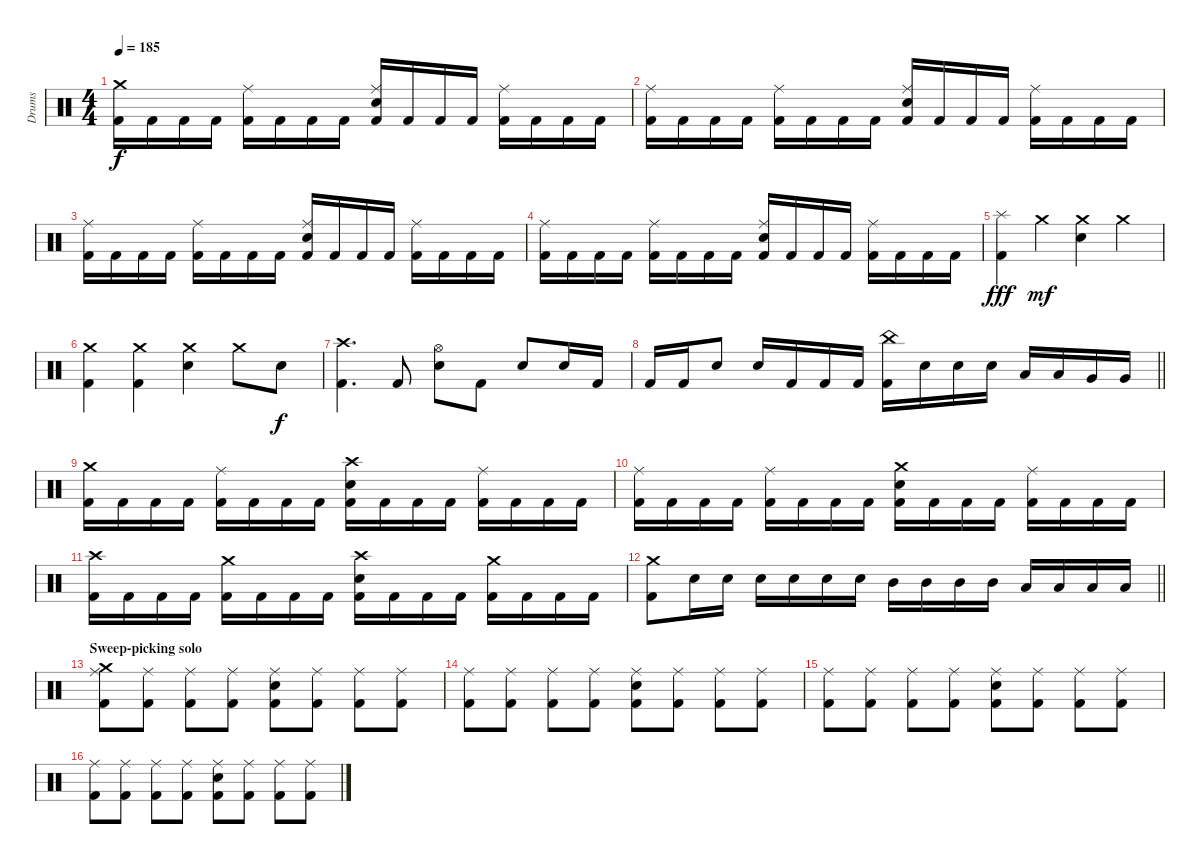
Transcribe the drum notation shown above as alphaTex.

\track ("Drums" "Drums") {instrument percussion}
\staff {score}
\articulation defaults
\ts (4 4)
\tempo 185
\clef neutral
\ks c
("Crash medium (hit)" "Kick (hit) 2").16{dy f} "Kick (hit) 2".16 "Kick (hit) 2".16 "Kick (hit) 2".16 ("Ride (middle)" "Kick (hit) 2").16 "Kick (hit) 2".16 "Kick (hit) 2".16 "Kick (hit) 2".16 ("Ride (middle)" "Electric Snare (hit)" "Kick (hit) 2").16 "Kick (hit) 2".16 "Kick (hit) 2".16 "Kick (hit) 2".16 ("Ride (middle)" "Kick (hit) 2").16 "Kick (hit) 2".16 "Kick (hit) 2".16 "Kick (hit) 2".16 |
("Ride (middle)" "Kick (hit) 2").16 "Kick (hit) 2".16 "Kick (hit) 2".16 "Kick (hit) 2".16 ("Ride (middle)" "Kick (hit) 2").16 "Kick (hit) 2".16 "Kick (hit) 2".16 "Kick (hit) 2".16 ("Ride (middle)" "Electric Snare (hit)" "Kick (hit) 2").16 "Kick (hit) 2".16 "Kick (hit) 2".16 "Kick (hit) 2".16 ("Ride (middle)" "Kick (hit) 2").16 "Kick (hit) 2".16 "Kick (hit) 2".16 "Kick (hit) 2".16 |
("Ride (middle)" "Kick (hit) 2").16 "Kick (hit) 2".16 "Kick (hit) 2".16 "Kick (hit) 2".16 ("Ride (middle)" "Kick (hit) 2").16 "Kick (hit) 2".16 "Kick (hit) 2".16 "Kick (hit) 2".16 ("Ride (middle)" "Electric Snare (hit)" "Kick (hit) 2").16 "Kick (hit) 2".16 "Kick (hit) 2".16 "Kick (hit) 2".16 ("Ride (middle)" "Kick (hit) 2").16 "Kick (hit) 2".16 "Kick (hit) 2".16 "Kick (hit) 2".16 |
("Ride (middle)" "Kick (hit) 2").16 "Kick (hit) 2".16 "Kick (hit) 2".16 "Kick (hit) 2".16 ("Ride (middle)" "Kick (hit) 2").16 "Kick (hit) 2".16 "Kick (hit) 2".16 "Kick (hit) 2".16 ("Ride (middle)" "Electric Snare (hit)" "Kick (hit) 2").16 "Kick (hit) 2".16 "Kick (hit) 2".16 "Kick (hit) 2".16 ("Ride (middle)" "Kick (hit) 2").16 "Kick (hit) 2".16 "Kick (hit) 2".16 "Kick (hit) 2".16 |
("Splash (hit)" "Kick (hit) 2").4{dy fff} "Crash medium (hit)".4{dy mf} ("Crash medium (hit)" "Electric Snare (hit)").4 "Crash medium (hit)".4 |
("Crash medium (hit)" "Kick (hit) 2").4 ("Crash medium (hit)" "Kick (hit) 2").4 ("Crash medium (hit)" "Electric Snare (hit)").4 "Crash medium (hit)".8 "Electric Snare (hit)".8{dy f} |
("Crash high (hit)" "Kick (hit) 2").4{d} "Kick (hit) 2".8 ("Hi-Hat (open)" "Electric Snare (hit)").8 "Kick (hit) 2".8 "Electric Snare (hit)".8 "Electric Snare (hit)".16 "Kick (hit) 2".16 |
\barLineRight lightlight "Kick (hit) 2".16 "Kick (hit) 2".16 "Electric Snare (hit)".8 "Electric Snare (hit)".16 "Kick (hit) 2".16 "Kick (hit) 2".16 "Kick (hit) 2".16
("China (hit)" "Kick (hit) 2").16 "Electric Snare (hit)".16 "Electric Snare (hit)".16 "Electric Snare (hit)".16 "Low Tom (hit)".16 "Low Tom (hit)".16 "Very Low Tom (hit)".16 "Very Low Tom (hit)".16 |
("Crash medium (hit)" "Kick (hit) 2").16 "Kick (hit) 2".16 "Kick (hit) 2".16 "Kick (hit) 2".16 ("Ride (middle)" "Kick (hit) 2").16 "Kick (hit) 2".16 "Kick (hit) 2".16 "Kick (hit) 2".16 ("Crash high (hit)" "Electric Snare (hit)" "Kick (hit) 2").16 "Kick (hit) 2".16 "Kick (hit) 2".16 "Kick (hit) 2".16 ("Ride (middle)" "Kick (hit) 2").16 "Kick (hit) 2".16 "Kick (hit) 2".16 "Kick (hit) 2".16 |
("Ride (middle)" "Kick (hit) 2").16 "Kick (hit) 2".16 "Kick (hit) 2".16 "Kick (hit) 2".16 ("Ride (middle)" "Kick (hit) 2").16 "Kick (hit) 2".16 "Kick (hit) 2".16 "Kick (hit) 2".16 ("Crash medium (hit)" "Electric Snare (hit)" "Kick (hit) 2").16 "Kick (hit) 2".16 "Kick (hit) 2".16 "Kick (hit) 2".16 ("Ride (middle)" "Kick (hit) 2").16 "Kick (hit) 2".16 "Kick (hit) 2".16 "Kick (hit) 2".16 |
("Crash high (hit)" "Kick (hit) 2").16 "Kick (hit) 2".16 "Kick (hit) 2".16 "Kick (hit) 2".16 ("Crash medium (hit)" "Kick (hit) 2").16 "Kick (hit) 2".16 "Kick (hit) 2".16 "Kick (hit) 2".16 ("Crash high (hit)" "Electric Snare (hit)" "Kick (hit) 2").16 "Kick (hit) 2".16 "Kick (hit) 2".16 "Kick (hit) 2".16 ("Crash medium (hit)" "Kick (hit) 2").16 "Kick (hit) 2".16 "Kick (hit) 2".16 "Kick (hit) 2".16 |
\barLineRight lightlight
("Crash medium (hit)" "Kick (hit) 2").8 "Electric Snare (hit)".16 "Electric Snare (hit)".16 "Electric Snare (hit)".16 "Electric Snare (hit)".16 "Electric Snare (hit)".16 "Electric Snare (hit)".16 "Mid Tom (hit)".16 "Mid Tom (hit)".16 "Mid Tom (hit)".16 "Mid Tom (hit)".16 "Low Tom (hit)".16 "Low Tom (hit)".16 "Low Tom (hit)".16 "Low Tom (hit)".16 |
\section ("" "Sweep-picking solo")
("Crash medium (hit)" "Ride (middle)" "Kick (hit) 2").8 ("Ride (middle)" "Kick (hit) 2").8 ("Ride (middle)" "Kick (hit) 2").8 ("Ride (middle)" "Kick (hit) 2").8 ("Ride (middle)" "Electric Snare (hit)" "Kick (hit) 2").8 ("Ride (middle)" "Kick (hit) 2").8 ("Ride (middle)" "Kick (hit) 2").8 ("Ride (middle)" "Kick (hit) 2").8 |
("Ride (middle)" "Kick (hit) 2").8 ("Ride (middle)" "Kick (hit) 2").8 ("Ride (middle)" "Kick (hit) 2").8 ("Ride (middle)" "Kick (hit) 2").8 ("Ride (middle)" "Electric Snare (hit)" "Kick (hit) 2").8 ("Ride (middle)" "Kick (hit) 2").8 ("Ride (middle)" "Kick (hit) 2").8 ("Ride (middle)" "Kick (hit) 2").8 |
("Ride (middle)" "Kick (hit) 2").8 ("Ride (middle)" "Kick (hit) 2").8 ("Ride (middle)" "Kick (hit) 2").8 ("Ride (middle)" "Kick (hit) 2").8 ("Ride (middle)" "Electric Snare (hit)" "Kick (hit) 2").8 ("Ride (middle)" "Kick (hit) 2").8 ("Ride (middle)" "Kick (hit) 2").8 ("Ride (middle)" "Kick (hit) 2").8 |
("Ride (middle)" "Kick (hit) 2").8 ("Ride (middle)" "Kick (hit) 2").8 ("Ride (middle)" "Kick (hit) 2").8 ("Ride (middle)" "Kick (hit) 2").8 ("Ride (middle)" "Electric Snare (hit)" "Kick (hit) 2").8 ("Ride (middle)" "Kick (hit) 2").8 ("Ride (middle)" "Kick (hit) 2").8 ("Ride (middle)" "Kick (hit) 2").8
